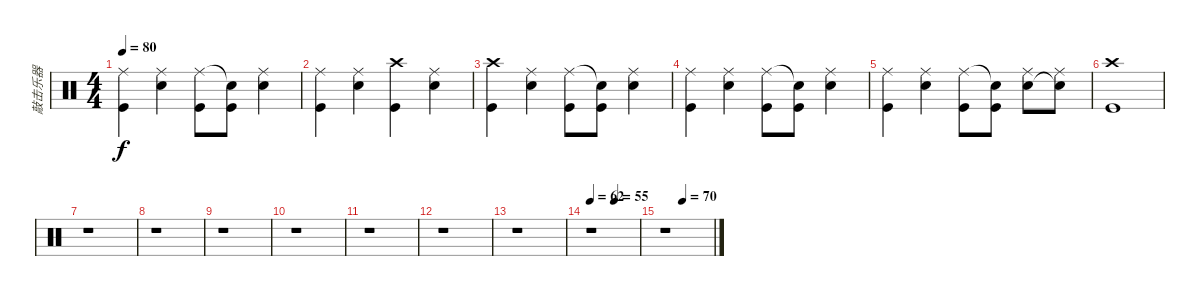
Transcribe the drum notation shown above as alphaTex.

\track ("敲击乐器" "敲击乐器") {instrument percussion}
\staff {score}
\articulation defaults
\ts (4 4)
\tempo 80
\clef neutral
\ks c
("Ride (middle)" "Kick (hit)").4{dy f} ("Ride (middle)" "Snare (hit) 2").4 ("Ride (middle)" "Kick (hit)").8 ("Snare (hit)"{t} "Kick (hit)").8 ("Ride (middle)" "Snare (hit) 2").4 |
("Ride (middle)" "Kick (hit)").4 ("Ride (middle)" "Snare (hit) 2").4 ("Crash high (hit)" "Kick (hit)").4 ("Ride (middle)" "Snare (hit) 2").4 |
("Crash high (hit)" "Kick (hit)").4 ("Ride (middle)" "Snare (hit) 2").4 ("Ride (middle)" "Kick (hit)").8 ("Snare (hit)"{t} "Kick (hit)").8 ("Ride (middle)" "Snare (hit) 2").4 |
("Ride (middle)" "Kick (hit)").4 ("Ride (middle)" "Snare (hit) 2").4 ("Ride (middle)" "Kick (hit)").8 ("Snare (hit)"{t} "Kick (hit)").8 ("Ride (middle)" "Snare (hit) 2").4 |
("Ride (middle)" "Kick (hit)").4 ("Ride (middle)" "Snare (hit) 2").4 ("Ride (middle)" "Kick (hit)").8 ("Snare (hit)"{t} "Kick (hit)").8 ("Ride (middle)" "Snare (hit) 2").8 ("Ride (middle)" "Snare (hit)"{t}).8 |
("Crash high (hit)" "Kick (hit)").1 |
r.1 |
r.1 |
r.1 |
r.1 |
r.1 |
r.1 |
r.1 |
\tempo 62
\tempo (55 0.5)
r.1 |
\tempo (70 0.375)
r.1
